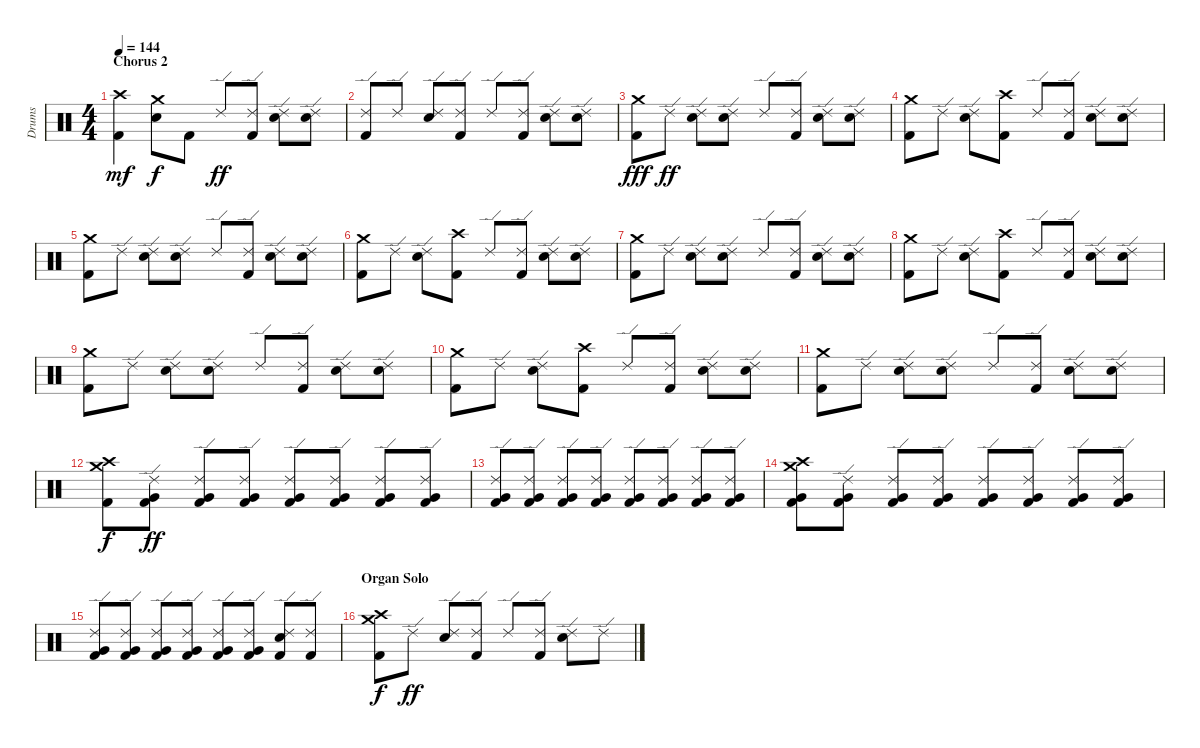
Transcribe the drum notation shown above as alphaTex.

\track ("Drums" "Drums") {instrument percussion}
\staff {score}
\articulation defaults
\ts (4 4)
\section ("" "Chorus 2")
\tempo 144
\clef neutral
\ks c
("Crash high (hit)" "Kick (hit) 2").4{dy mf} ("Crash medium (hit)" "Electric Snare (hit)").8{dy f} "Kick (hit) 2".8 "Ride (edge) 2".8{dy ff} ("Ride (edge) 2" "Kick (hit) 2").8 ("Ride (edge) 2" "Electric Snare (hit)").8 ("Ride (edge) 2" "Electric Snare (hit)").8 |
("Ride (edge) 2" "Kick (hit) 2").8 "Ride (edge) 2".8 ("Ride (edge) 2" "Electric Snare (hit)").8 ("Ride (edge) 2" "Kick (hit) 2").8 "Ride (edge) 2".8 ("Ride (edge) 2" "Kick (hit) 2").8 ("Ride (edge) 2" "Electric Snare (hit)").8 ("Ride (edge) 2" "Electric Snare (hit)").8 |
("Crash medium (hit)" "Kick (hit) 2").8{dy fff} "Ride (edge) 2".8{dy ff} ("Ride (edge) 2" "Electric Snare (hit)").8 ("Ride (edge) 2" "Electric Snare (hit)").8 "Ride (edge) 2".8 ("Ride (edge) 2" "Kick (hit) 2").8 ("Ride (edge) 2" "Electric Snare (hit)").8 ("Ride (edge) 2" "Electric Snare (hit)").8 |
("Crash medium (hit)" "Kick (hit) 2").8 "Ride (edge) 2".8 ("Ride (edge) 2" "Electric Snare (hit)").8 ("Crash high (hit)" "Kick (hit) 2").8 "Ride (edge) 2".8 ("Ride (edge) 2" "Kick (hit) 2").8 ("Ride (edge) 2" "Electric Snare (hit)").8 ("Ride (edge) 2" "Electric Snare (hit)").8 |
("Crash medium (hit)" "Kick (hit) 2").8 "Ride (edge) 2".8 ("Ride (edge) 2" "Electric Snare (hit)").8 ("Ride (edge) 2" "Electric Snare (hit)").8 "Ride (edge) 2".8 ("Ride (edge) 2" "Kick (hit) 2").8 ("Ride (edge) 2" "Electric Snare (hit)").8 ("Ride (edge) 2" "Electric Snare (hit)").8 |
("Crash medium (hit)" "Kick (hit) 2").8 "Ride (edge) 2".8 ("Ride (edge) 2" "Electric Snare (hit)").8 ("Crash high (hit)" "Kick (hit) 2").8 "Ride (edge) 2".8 ("Ride (edge) 2" "Kick (hit) 2").8 ("Ride (edge) 2" "Electric Snare (hit)").8 ("Ride (edge) 2" "Electric Snare (hit)").8 |
("Crash medium (hit)" "Kick (hit) 2").8 "Ride (edge) 2".8 ("Ride (edge) 2" "Electric Snare (hit)").8 ("Ride (edge) 2" "Electric Snare (hit)").8 "Ride (edge) 2".8 ("Ride (edge) 2" "Kick (hit) 2").8 ("Ride (edge) 2" "Electric Snare (hit)").8 ("Ride (edge) 2" "Electric Snare (hit)").8 |
("Crash medium (hit)" "Kick (hit) 2").8 "Ride (edge) 2".8 ("Ride (edge) 2" "Electric Snare (hit)").8 ("Crash high (hit)" "Kick (hit) 2").8 "Ride (edge) 2".8 ("Ride (edge) 2" "Kick (hit) 2").8 ("Ride (edge) 2" "Electric Snare (hit)").8 ("Ride (edge) 2" "Electric Snare (hit)").8 |
("Crash medium (hit)" "Kick (hit) 2").8 "Ride (edge) 2".8 ("Ride (edge) 2" "Electric Snare (hit)").8 ("Ride (edge) 2" "Electric Snare (hit)").8 "Ride (edge) 2".8 ("Ride (edge) 2" "Kick (hit) 2").8 ("Ride (edge) 2" "Electric Snare (hit)").8 ("Ride (edge) 2" "Electric Snare (hit)").8 |
("Crash medium (hit)" "Kick (hit) 2").8 "Ride (edge) 2".8 ("Ride (edge) 2" "Electric Snare (hit)").8 ("Crash high (hit)" "Kick (hit) 2").8 "Ride (edge) 2".8 ("Ride (edge) 2" "Kick (hit) 2").8 ("Ride (edge) 2" "Electric Snare (hit)").8 ("Ride (edge) 2" "Electric Snare (hit)").8 |
("Crash medium (hit)" "Kick (hit) 2").8 "Ride (edge) 2".8 ("Ride (edge) 2" "Electric Snare (hit)").8 ("Ride (edge) 2" "Electric Snare (hit)").8 "Ride (edge) 2".8 ("Ride (edge) 2" "Kick (hit) 2").8 ("Ride (edge) 2" "Electric Snare (hit)").8 ("Ride (edge) 2" "Electric Snare (hit)").8 |
("Crash medium (hit)" "Crash high (hit)" "Kick (hit) 2").8{dy f} ("Ride (edge) 2" "Very Low Tom (hit)" "Kick (hit) 2").8{dy ff} ("Ride (edge) 2" "Very Low Tom (hit)" "Kick (hit) 2").8 ("Ride (edge) 2" "Very Low Tom (hit)" "Kick (hit) 2").8 ("Ride (edge) 2" "Very Low Tom (hit)" "Kick (hit) 2").8 ("Ride (edge) 2" "Very Low Tom (hit)" "Kick (hit) 2").8 ("Ride (edge) 2" "Very Low Tom (hit)" "Kick (hit) 2").8 ("Ride (edge) 2" "Very Low Tom (hit)" "Kick (hit) 2").8 |
("Ride (edge) 2" "Very Low Tom (hit)" "Kick (hit) 2").8 ("Ride (edge) 2" "Very Low Tom (hit)" "Kick (hit) 2").8 ("Ride (edge) 2" "Very Low Tom (hit)" "Kick (hit) 2").8 ("Ride (edge) 2" "Very Low Tom (hit)" "Kick (hit) 2").8 ("Ride (edge) 2" "Very Low Tom (hit)" "Kick (hit) 2").8 ("Ride (edge) 2" "Very Low Tom (hit)" "Kick (hit) 2").8 ("Ride (edge) 2" "Very Low Tom (hit)" "Kick (hit) 2").8 ("Ride (edge) 2" "Very Low Tom (hit)" "Kick (hit) 2").8 |
("Crash medium (hit)" "Crash high (hit)" "Very Low Tom (hit)" "Kick (hit) 2").8 ("Ride (edge) 2" "Very Low Tom (hit)" "Kick (hit) 2").8 ("Ride (edge) 2" "Very Low Tom (hit)" "Kick (hit) 2").8 ("Ride (edge) 2" "Very Low Tom (hit)" "Kick (hit) 2").8 ("Ride (edge) 2" "Very Low Tom (hit)" "Kick (hit) 2").8 ("Ride (edge) 2" "Very Low Tom (hit)" "Kick (hit) 2").8 ("Ride (edge) 2" "Very Low Tom (hit)" "Kick (hit) 2").8 ("Ride (edge) 2" "Very Low Tom (hit)" "Kick (hit) 2").8 |
("Ride (edge) 2" "Very Low Tom (hit)" "Kick (hit) 2").8 ("Ride (edge) 2" "Very Low Tom (hit)" "Kick (hit) 2").8 ("Ride (edge) 2" "Very Low Tom (hit)" "Kick (hit) 2").8 ("Ride (edge) 2" "Very Low Tom (hit)" "Kick (hit) 2").8 ("Ride (edge) 2" "Very Low Tom (hit)" "Kick (hit) 2").8 ("Ride (edge) 2" "Very Low Tom (hit)" "Kick (hit) 2").8 ("Ride (edge) 2" "Electric Snare (hit)" "Kick (hit) 2").8 ("Ride (edge) 2" "Kick (hit) 2").8 |
\section ("" "Organ Solo")
("Crash medium (hit)" "Crash high (hit)" "Kick (hit) 2").8{dy f} "Ride (edge) 2".8{dy ff} ("Ride (edge) 2" "Electric Snare (hit)").8 ("Ride (edge) 2" "Kick (hit) 2").8 "Ride (edge) 2".8 ("Ride (edge) 2" "Kick (hit) 2").8 ("Ride (edge) 2" "Electric Snare (hit)").8 "Ride (edge) 2".8
